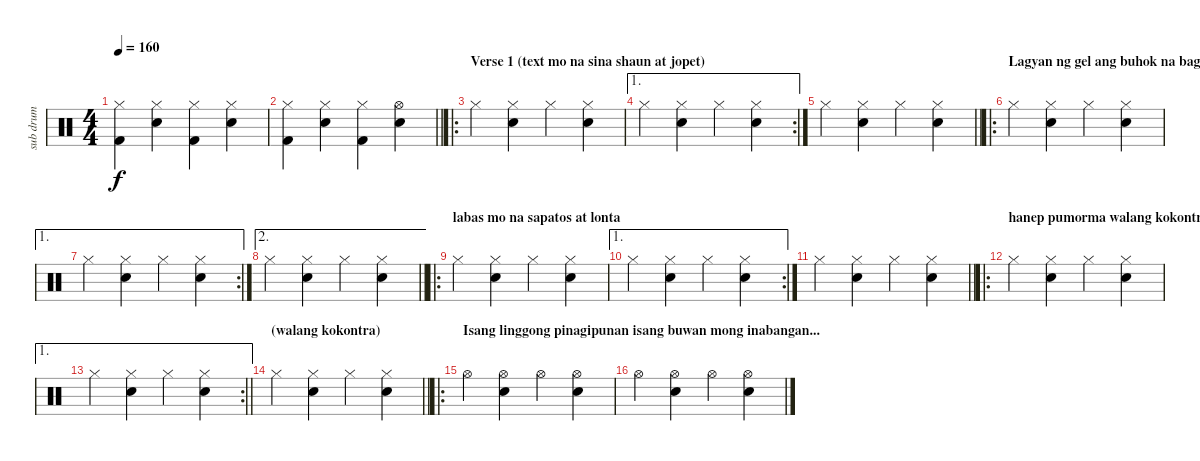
\track ("sub drum" "sub drum") {instrument percussion}
\staff {score}
\articulation defaults
\ts (4 4)
\tempo 160
\clef neutral
\ks c
("Hi-Hat (closed)" "Kick (hit) 2").4{dy f} ("Hi-Hat (closed)" "Snare (hit) 2").4 ("Hi-Hat (closed)" "Kick (hit) 2").4 ("Hi-Hat (closed)" "Snare (hit) 2").4 |
\barLineRight lightlight
("Hi-Hat (closed)" "Kick (hit) 2").4 ("Hi-Hat (closed)" "Snare (hit) 2").4 ("Hi-Hat (closed)" "Kick (hit) 2").4 ("Hi-Hat (open)" "Snare (hit) 2").4 |
\ro
\section ("" "Verse 1 (text mo na sina shaun at jopet)")
"Hi-Hat (closed)".4 ("Hi-Hat (closed)" "Snare (hit) 2").4 "Hi-Hat (closed)".4 ("Hi-Hat (closed)" "Snare (hit) 2").4 |
\ae 1
\rc 2 "Hi-Hat (closed)".4
("Hi-Hat (closed)" "Snare (hit) 2").4 "Hi-Hat (closed)".4 ("Hi-Hat (closed)" "Snare (hit) 2").4 |
\barLineRight lightlight "Hi-Hat (closed)".4
("Hi-Hat (closed)" "Snare (hit) 2").4 "Hi-Hat (closed)".4 ("Hi-Hat (closed)" "Snare (hit) 2").4 |
\ro
\section ("" "Lagyan ng gel ang buhok na bagong gupit")
"Hi-Hat (closed)".4 ("Hi-Hat (closed)" "Snare (hit) 2").4 "Hi-Hat (closed)".4 ("Hi-Hat (closed)" "Snare (hit) 2").4 |
\ae 1
\rc 2 "Hi-Hat (closed)".4
("Hi-Hat (closed)" "Snare (hit) 2").4 "Hi-Hat (closed)".4 ("Hi-Hat (closed)" "Snare (hit) 2").4 |
\ae 2
\barLineRight lightlight "Hi-Hat (closed)".4
("Hi-Hat (closed)" "Snare (hit) 2").4 "Hi-Hat (closed)".4 ("Hi-Hat (closed)" "Snare (hit) 2").4 |
\ro
\section ("" "labas mo na sapatos at lonta")
"Hi-Hat (closed)".4 ("Hi-Hat (closed)" "Snare (hit) 2").4 "Hi-Hat (closed)".4 ("Hi-Hat (closed)" "Snare (hit) 2").4 |
\ae 1
\rc 2 "Hi-Hat (closed)".4
("Hi-Hat (closed)" "Snare (hit) 2").4 "Hi-Hat (closed)".4 ("Hi-Hat (closed)" "Snare (hit) 2").4 |
\barLineRight lightlight "Hi-Hat (closed)".4
("Hi-Hat (closed)" "Snare (hit) 2").4 "Hi-Hat (closed)".4 ("Hi-Hat (closed)" "Snare (hit) 2").4 |
\ro
\section ("" "hanep pumorma walang kokontra")
"Hi-Hat (closed)".4 ("Hi-Hat (closed)" "Snare (hit) 2").4 "Hi-Hat (closed)".4 ("Hi-Hat (closed)" "Snare (hit) 2").4 |
\ae 1
\rc 2
\barLineRight lightlight "Hi-Hat (closed)".4
("Hi-Hat (closed)" "Snare (hit) 2").4 "Hi-Hat (closed)".4 ("Hi-Hat (closed)" "Snare (hit) 2").4 |
\section ("" "(walang kokontra)")
\barLineRight lightlight "Hi-Hat (closed)".4
("Hi-Hat (closed)" "Snare (hit) 2").4 "Hi-Hat (closed)".4 ("Hi-Hat (closed)" "Snare (hit) 2").4 |
\ro
\section ("" "Isang linggong pinagipunan isang buwan mong inabangan...")
"Hi-Hat (open)".4 ("Hi-Hat (open)" "Snare (hit) 2").4 "Hi-Hat (open)".4 ("Hi-Hat (open)" "Snare (hit) 2").4 |
"Hi-Hat (open)".4 ("Hi-Hat (open)" "Snare (hit) 2").4 "Hi-Hat (open)".4 ("Hi-Hat (open)" "Snare (hit) 2").4
